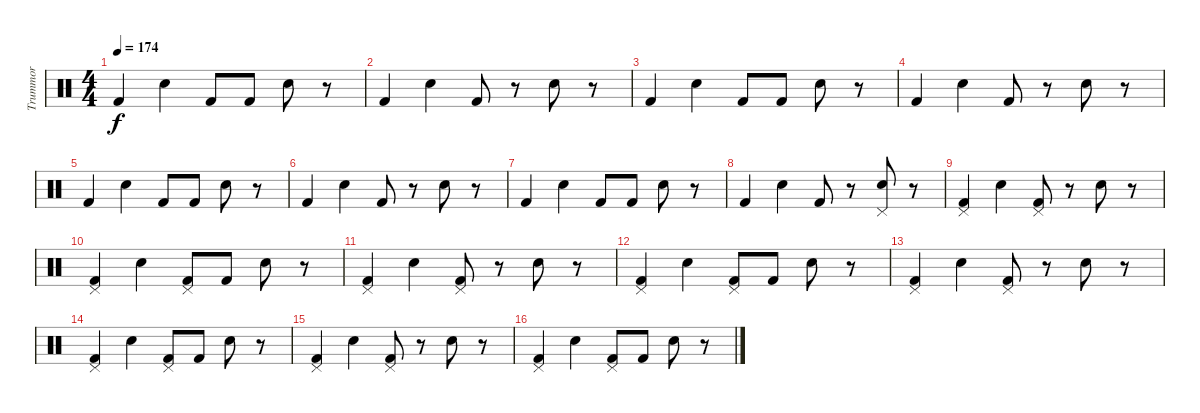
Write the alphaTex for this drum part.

\track ("Trummor" "Trummor") {instrument percussion}
\staff {score}
\articulation defaults
\ts (4 4)
\tempo 174
\clef neutral
\ks c "Kick (hit) 2".4{dy f} "Snare (hit) 2".4 "Kick (hit) 2".8 "Kick (hit) 2".8 "Snare (hit) 2".8
r.8 |
"Kick (hit) 2".4 "Snare (hit) 2".4 "Kick (hit) 2".8 r.8 "Snare (hit) 2".8 r.8 |
"Kick (hit) 2".4 "Snare (hit) 2".4 "Kick (hit) 2".8 "Kick (hit) 2".8 "Snare (hit) 2".8 r.8 |
"Kick (hit) 2".4 "Snare (hit) 2".4 "Kick (hit) 2".8 r.8 "Snare (hit) 2".8 r.8 |
"Kick (hit) 2".4 "Snare (hit) 2".4 "Kick (hit) 2".8 "Kick (hit) 2".8 "Snare (hit) 2".8 r.8 |
"Kick (hit) 2".4 "Snare (hit) 2".4 "Kick (hit) 2".8 r.8 "Snare (hit) 2".8 r.8 |
"Kick (hit) 2".4 "Snare (hit) 2".4 "Kick (hit) 2".8 "Kick (hit) 2".8 "Snare (hit) 2".8 r.8 |
"Kick (hit) 2".4 "Snare (hit) 2".4 "Kick (hit) 2".8 r.8 ("Pedal Hi-Hat (hit)" "Snare (hit) 2").8 r.8 |
("Pedal Hi-Hat (hit)" "Kick (hit) 2").4 "Snare (hit) 2".4 ("Pedal Hi-Hat (hit)" "Kick (hit) 2").8 r.8 "Snare (hit) 2".8 r.8 |
("Pedal Hi-Hat (hit)" "Kick (hit) 2").4 "Snare (hit) 2".4 ("Pedal Hi-Hat (hit)" "Kick (hit) 2").8 "Kick (hit) 2".8 "Snare (hit) 2".8 r.8 |
("Pedal Hi-Hat (hit)" "Kick (hit) 2").4 "Snare (hit) 2".4 ("Pedal Hi-Hat (hit)" "Kick (hit) 2").8 r.8 "Snare (hit) 2".8 r.8 |
("Pedal Hi-Hat (hit)" "Kick (hit) 2").4 "Snare (hit) 2".4 ("Pedal Hi-Hat (hit)" "Kick (hit) 2").8 "Kick (hit) 2".8 "Snare (hit) 2".8 r.8 |
("Pedal Hi-Hat (hit)" "Kick (hit) 2").4 "Snare (hit) 2".4 ("Pedal Hi-Hat (hit)" "Kick (hit) 2").8 r.8 "Snare (hit) 2".8 r.8 |
("Pedal Hi-Hat (hit)" "Kick (hit) 2").4 "Snare (hit) 2".4 ("Pedal Hi-Hat (hit)" "Kick (hit) 2").8 "Kick (hit) 2".8 "Snare (hit) 2".8 r.8 |
("Pedal Hi-Hat (hit)" "Kick (hit) 2").4 "Snare (hit) 2".4 ("Pedal Hi-Hat (hit)" "Kick (hit) 2").8 r.8 "Snare (hit) 2".8 r.8 |
("Pedal Hi-Hat (hit)" "Kick (hit) 2").4 "Snare (hit) 2".4 ("Pedal Hi-Hat (hit)" "Kick (hit) 2").8 "Kick (hit) 2".8 "Snare (hit) 2".8 r.8
